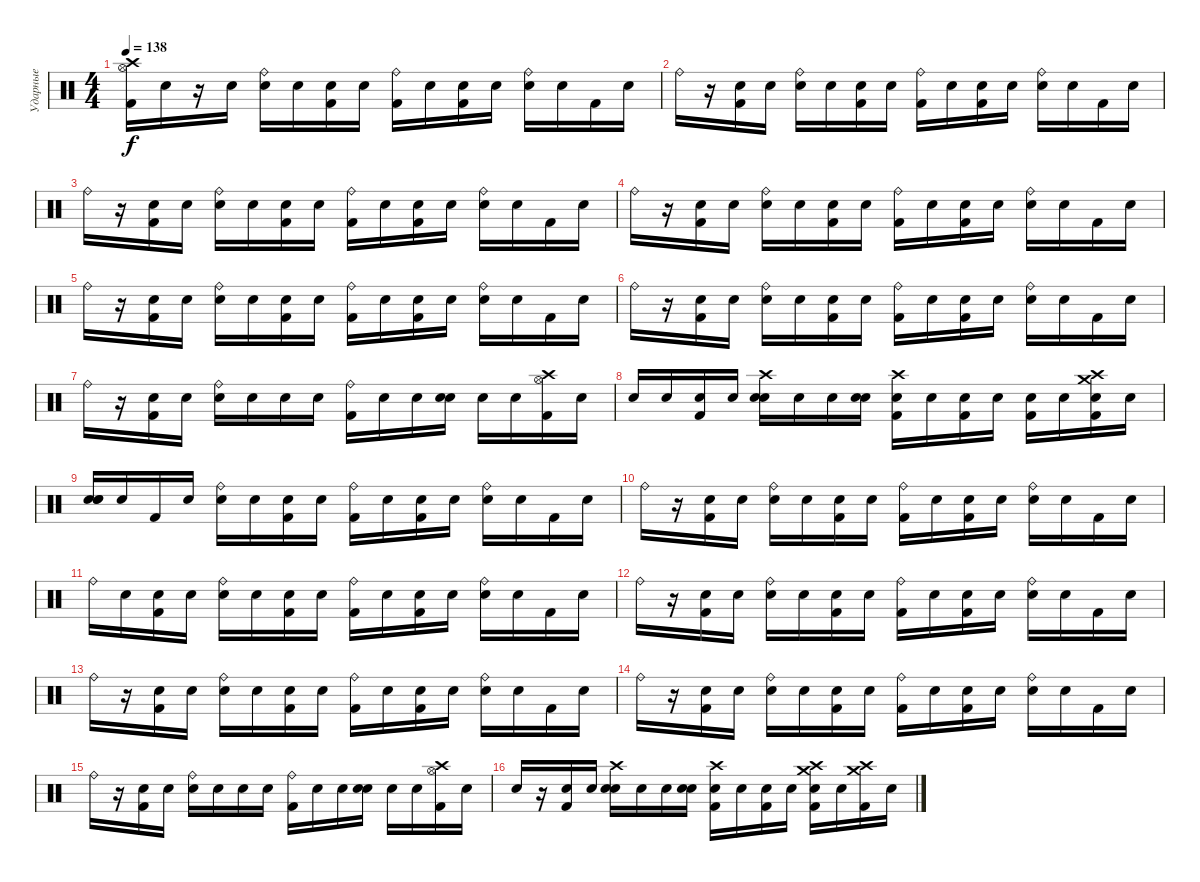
\track ("Ударные" "Ударные") {instrument percussion}
\staff {score}
\articulation defaults
\ts (4 4)
\tempo 138
\clef neutral
\ks c
("Hi-Hat (open)" "Crash high (hit)" "Kick (hit) 2").16{dy f} "Snare (hit)".16 r.16 "Snare (hit)".16 ("Ride (bell)" "Snare (hit) 2").16 "Snare (hit)".16 ("Snare (hit)" "Kick (hit) 2").16 "Snare (hit)".16 ("Ride (bell)" "Kick (hit) 2").16 "Snare (hit)".16 ("Snare (hit)" "Kick (hit) 2").16 "Snare (hit)".16 ("Ride (bell)" "Snare (hit) 2").16 "Snare (hit)".16 "Kick (hit) 2".16 "Snare (hit)".16 |
"Ride (bell)".16 r.16 ("Snare (hit)" "Kick (hit) 2").16 "Snare (hit)".16 ("Ride (bell)" "Snare (hit) 2").16 "Snare (hit)".16 ("Snare (hit)" "Kick (hit) 2").16 "Snare (hit)".16 ("Ride (bell)" "Kick (hit) 2").16 "Snare (hit)".16 ("Snare (hit)" "Kick (hit) 2").16 "Snare (hit)".16 ("Ride (bell)" "Snare (hit) 2").16 "Snare (hit)".16 "Kick (hit) 2".16 "Snare (hit)".16 |
"Ride (bell)".16 r.16 ("Snare (hit)" "Kick (hit) 2").16 "Snare (hit)".16 ("Ride (bell)" "Snare (hit) 2").16 "Snare (hit)".16 ("Snare (hit)" "Kick (hit) 2").16 "Snare (hit)".16 ("Ride (bell)" "Kick (hit) 2").16 "Snare (hit)".16 ("Snare (hit)" "Kick (hit) 2").16 "Snare (hit)".16 ("Ride (bell)" "Snare (hit) 2").16 "Snare (hit)".16 "Kick (hit) 2".16 "Snare (hit)".16 |
"Ride (bell)".16 r.16 ("Snare (hit)" "Kick (hit) 2").16 "Snare (hit)".16 ("Ride (bell)" "Snare (hit) 2").16 "Snare (hit)".16 ("Snare (hit)" "Kick (hit) 2").16 "Snare (hit)".16 ("Ride (bell)" "Kick (hit) 2").16 "Snare (hit)".16 ("Snare (hit)" "Kick (hit) 2").16 "Snare (hit)".16 ("Ride (bell)" "Snare (hit) 2").16 "Snare (hit)".16 "Kick (hit) 2".16 "Snare (hit)".16 |
"Ride (bell)".16 r.16 ("Snare (hit)" "Kick (hit) 2").16 "Snare (hit)".16 ("Ride (bell)" "Snare (hit) 2").16 "Snare (hit)".16 ("Snare (hit)" "Kick (hit) 2").16 "Snare (hit)".16 ("Ride (bell)" "Kick (hit) 2").16 "Snare (hit)".16 ("Snare (hit)" "Kick (hit) 2").16 "Snare (hit)".16 ("Ride (bell)" "Snare (hit) 2").16 "Snare (hit)".16 "Kick (hit) 2".16 "Snare (hit)".16 |
"Ride (bell)".16 r.16 ("Snare (hit)" "Kick (hit) 2").16 "Snare (hit)".16 ("Ride (bell)" "Snare (hit) 2").16 "Snare (hit)".16 ("Snare (hit)" "Kick (hit) 2").16 "Snare (hit)".16 ("Ride (bell)" "Kick (hit) 2").16 "Snare (hit)".16 ("Snare (hit)" "Kick (hit) 2").16 "Snare (hit)".16 ("Ride (bell)" "Snare (hit) 2").16 "Snare (hit)".16 "Kick (hit) 2".16 "Snare (hit)".16 |
"Ride (bell)".16 r.16 ("Snare (hit)" "Kick (hit) 2").16 "Snare (hit)".16 ("Ride (bell)" "Snare (hit) 2").16 "Snare (hit)".16 "Snare (hit)".16 "Snare (hit)".16 ("Ride (bell)" "Kick (hit) 2").16 "Snare (hit)".16 "Snare (hit) 2".16 ("Snare (hit)" "Snare (hit) 2").16 "Snare (hit) 2".16 "Snare (hit)".16 ("Hi-Hat (open)" "Crash high (hit)" "Kick (hit) 2").16 "Snare (hit)".16 |
"Snare (hit)".16 "Snare (hit)".16 ("Snare (hit)" "Kick (hit) 2").16 "Snare (hit)".16 ("Snare (hit)" "Crash high (hit)" "Snare (hit) 2").16 "Snare (hit)".16 "Snare (hit)".16 ("Snare (hit)" "Snare (hit) 2").16 ("Snare (hit)" "Crash high (hit)" "Kick (hit) 2").16 "Snare (hit)".16 ("Snare (hit)" "Kick (hit) 2").16 "Snare (hit)".16 ("Snare (hit)" "Kick (hit) 2").16 "Snare (hit)".16 ("Snare (hit)" "Crash medium (hit)" "Crash high (hit)" "Kick (hit) 2").16 "Snare (hit)".16 |
("Snare (hit)" "Snare (hit)" "Snare (hit)").16 "Snare (hit)".16 "Kick (hit) 2".16 "Snare (hit)".16 ("Ride (bell)" "Snare (hit) 2").16 "Snare (hit)".16 ("Snare (hit)" "Kick (hit) 2").16 "Snare (hit)".16 ("Ride (bell)" "Kick (hit) 2").16 "Snare (hit)".16 ("Snare (hit)" "Kick (hit) 2").16 "Snare (hit)".16 ("Ride (bell)" "Snare (hit) 2").16 "Snare (hit)".16 "Kick (hit) 2".16 "Snare (hit)".16 |
"Ride (bell)".16 r.16 ("Snare (hit)" "Kick (hit) 2").16 "Snare (hit)".16 ("Ride (bell)" "Snare (hit) 2").16 "Snare (hit)".16 ("Snare (hit)" "Kick (hit) 2").16 "Snare (hit)".16 ("Ride (bell)" "Kick (hit) 2").16 "Snare (hit)".16 ("Snare (hit)" "Kick (hit) 2").16 "Snare (hit)".16 ("Ride (bell)" "Snare (hit) 2").16 "Snare (hit)".16 "Kick (hit) 2".16 "Snare (hit)".16 |
"Ride (bell)".16 "Snare (hit)".16 ("Snare (hit)" "Kick (hit) 2").16 "Snare (hit)".16 ("Ride (bell)" "Snare (hit) 2").16 "Snare (hit)".16 ("Snare (hit)" "Kick (hit) 2").16 "Snare (hit)".16 ("Ride (bell)" "Kick (hit) 2").16 "Snare (hit)".16 ("Snare (hit)" "Kick (hit) 2").16 "Snare (hit)".16 ("Ride (bell)" "Snare (hit) 2").16 "Snare (hit)".16 "Kick (hit) 2".16 "Snare (hit)".16 |
"Ride (bell)".16 r.16 ("Snare (hit)" "Kick (hit) 2").16 "Snare (hit)".16 ("Ride (bell)" "Snare (hit) 2").16 "Snare (hit)".16 ("Snare (hit)" "Kick (hit) 2").16 "Snare (hit)".16 ("Ride (bell)" "Kick (hit) 2").16 "Snare (hit)".16 ("Snare (hit)" "Kick (hit) 2").16 "Snare (hit)".16 ("Ride (bell)" "Snare (hit) 2").16 "Snare (hit)".16 "Kick (hit) 2".16 "Snare (hit)".16 |
"Ride (bell)".16 r.16 ("Snare (hit)" "Kick (hit) 2").16 "Snare (hit)".16 ("Ride (bell)" "Snare (hit) 2").16 "Snare (hit)".16 ("Snare (hit)" "Kick (hit) 2").16 "Snare (hit)".16 ("Ride (bell)" "Kick (hit) 2").16 "Snare (hit)".16 ("Snare (hit)" "Kick (hit) 2").16 "Snare (hit)".16 ("Ride (bell)" "Snare (hit) 2").16 "Snare (hit)".16 "Kick (hit) 2".16 "Snare (hit)".16 |
"Ride (bell)".16 r.16 ("Snare (hit)" "Kick (hit) 2").16 "Snare (hit)".16 ("Ride (bell)" "Snare (hit) 2").16 "Snare (hit)".16 ("Snare (hit)" "Kick (hit) 2").16 "Snare (hit)".16 ("Ride (bell)" "Kick (hit) 2").16 "Snare (hit)".16 ("Snare (hit)" "Kick (hit) 2").16 "Snare (hit)".16 ("Ride (bell)" "Snare (hit) 2").16 "Snare (hit)".16 "Kick (hit) 2".16 "Snare (hit)".16 |
"Ride (bell)".16 r.16 ("Snare (hit)" "Kick (hit) 2").16 "Snare (hit)".16 ("Ride (bell)" "Snare (hit) 2").16 "Snare (hit)".16 "Snare (hit)".16 "Snare (hit)".16 ("Ride (bell)" "Kick (hit) 2").16 "Snare (hit)".16 "Snare (hit) 2".16 ("Snare (hit)" "Snare (hit) 2").16 "Snare (hit) 2".16 "Snare (hit)".16 ("Hi-Hat (open)" "Crash high (hit)" "Kick (hit) 2").16 "Snare (hit)".16 |
"Snare (hit)".16 r.16 ("Snare (hit)" "Kick (hit) 2").16 "Snare (hit)".16 ("Snare (hit)" "Crash high (hit)" "Snare (hit) 2").16 "Snare (hit)".16 "Snare (hit)".16 ("Snare (hit)" "Snare (hit) 2").16 ("Snare (hit)" "Crash high (hit)" "Kick (hit) 2").16 "Snare (hit)".16 ("Snare (hit)" "Kick (hit) 2").16 "Snare (hit)".16 ("Snare (hit)" "Crash medium (hit)" "Crash high (hit)" "Kick (hit) 2").16 "Snare (hit)".16 ("Crash medium (hit)" "Crash high (hit)" "Kick (hit) 2").16 "Snare (hit)".16
